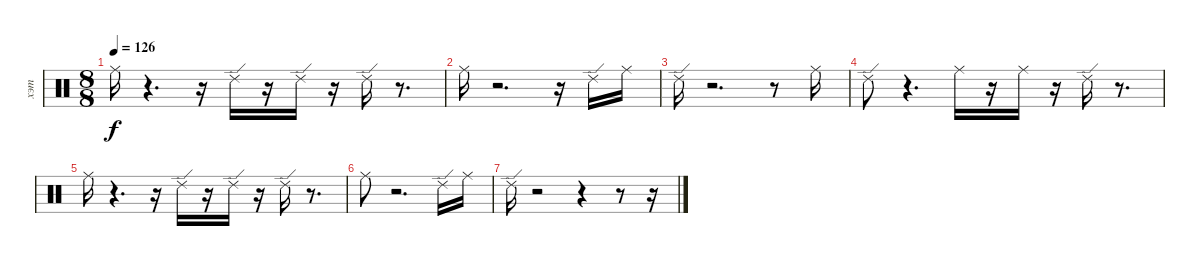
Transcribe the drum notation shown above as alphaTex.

\track ("хэт" "хэт") {instrument percussion}
\staff {score}
\articulation defaults
\ts (8 8)
\tempo 126
\clef neutral
\ks c "Ride (middle)".16{dy f}
r.4{d} r.16 "Ride (edge) 2".16 r.16 "Ride (edge) 2".16 r.16 "Ride (edge) 2".16 r.8{d} |
"Ride (middle)".16 r.2{d} r.16 "Ride (edge) 2".16 "Ride (middle)".16 |
"Ride (edge) 2".16 r.2{d} r.8 "Ride (middle)".16 |
"Ride (edge) 2".8 r.4{d} "Ride (middle)".16 r.16 "Ride (middle)".16 r.16 "Ride (edge) 2".16 r.8{d} |
"Ride (middle)".16 r.4{d} r.16 "Ride (edge) 2".16 r.16 "Ride (edge) 2".16 r.16 "Ride (edge) 2".16 r.8{d} |
"Ride (middle)".8 r.2{d} "Ride (edge) 2".16 "Ride (middle)".16 |
"Ride (edge) 2".16 r.2 r.4 r.8 r.16
